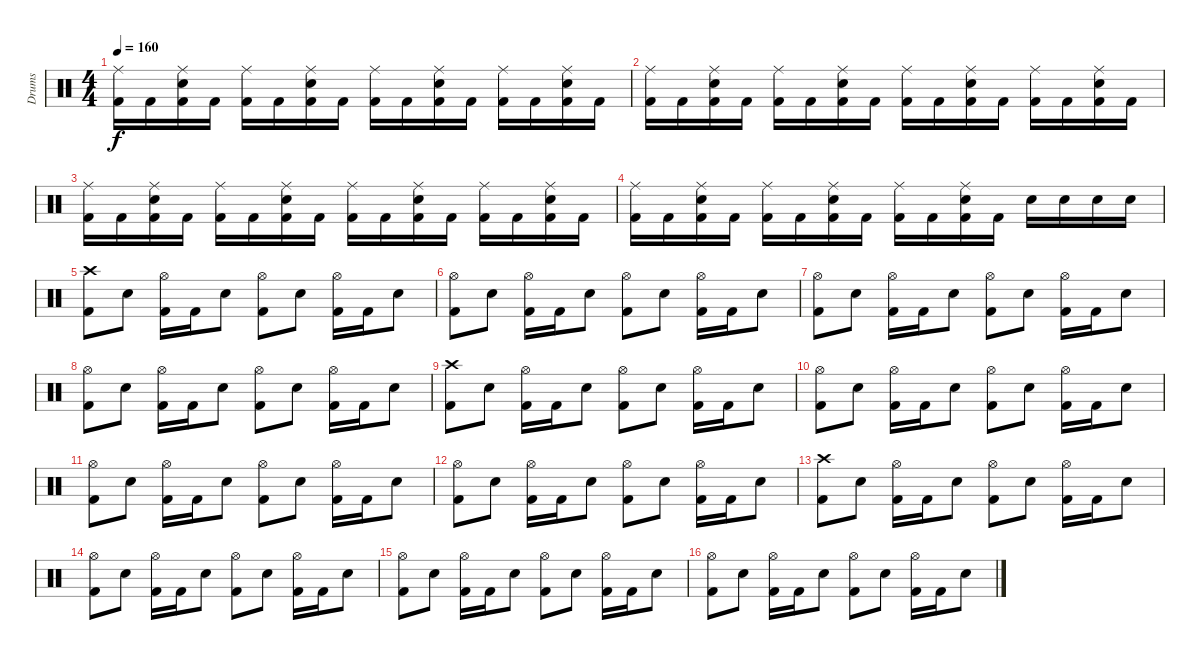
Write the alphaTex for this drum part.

\track ("Drums" "Drums") {instrument percussion}
\staff {score}
\articulation defaults
\ts (4 4)
\tempo 160
\clef neutral
\ks c
("Ride (middle)" "Kick (hit) 2").16{dy f} "Kick (hit) 2".16 ("Ride (middle)" "Electric Snare (hit)" "Kick (hit) 2").16 "Kick (hit) 2".16 ("Ride (middle)" "Kick (hit) 2").16 "Kick (hit) 2".16 ("Ride (middle)" "Electric Snare (hit)" "Kick (hit) 2").16 "Kick (hit) 2".16 ("Ride (middle)" "Kick (hit) 2").16 "Kick (hit) 2".16 ("Ride (middle)" "Electric Snare (hit)" "Kick (hit) 2").16 "Kick (hit) 2".16 ("Ride (middle)" "Kick (hit) 2").16 "Kick (hit) 2".16 ("Ride (middle)" "Electric Snare (hit)" "Kick (hit) 2").16 "Kick (hit) 2".16 |
("Ride (middle)" "Kick (hit) 2").16 "Kick (hit) 2".16 ("Ride (middle)" "Electric Snare (hit)" "Kick (hit) 2").16 "Kick (hit) 2".16 ("Ride (middle)" "Kick (hit) 2").16 "Kick (hit) 2".16 ("Ride (middle)" "Electric Snare (hit)" "Kick (hit) 2").16 "Kick (hit) 2".16 ("Ride (middle)" "Kick (hit) 2").16 "Kick (hit) 2".16 ("Ride (middle)" "Electric Snare (hit)" "Kick (hit) 2").16 "Kick (hit) 2".16 ("Ride (middle)" "Kick (hit) 2").16 "Kick (hit) 2".16 ("Ride (middle)" "Electric Snare (hit)" "Kick (hit) 2").16 "Kick (hit) 2".16 |
("Ride (middle)" "Kick (hit) 2").16 "Kick (hit) 2".16 ("Ride (middle)" "Electric Snare (hit)" "Kick (hit) 2").16 "Kick (hit) 2".16 ("Ride (middle)" "Kick (hit) 2").16 "Kick (hit) 2".16 ("Ride (middle)" "Electric Snare (hit)" "Kick (hit) 2").16 "Kick (hit) 2".16 ("Ride (middle)" "Kick (hit) 2").16 "Kick (hit) 2".16 ("Ride (middle)" "Electric Snare (hit)" "Kick (hit) 2").16 "Kick (hit) 2".16 ("Ride (middle)" "Kick (hit) 2").16 "Kick (hit) 2".16 ("Ride (middle)" "Electric Snare (hit)" "Kick (hit) 2").16 "Kick (hit) 2".16 |
("Ride (middle)" "Kick (hit) 2").16 "Kick (hit) 2".16 ("Ride (middle)" "Electric Snare (hit)" "Kick (hit) 2").16 "Kick (hit) 2".16 ("Ride (middle)" "Kick (hit) 2").16 "Kick (hit) 2".16 ("Ride (middle)" "Electric Snare (hit)" "Kick (hit) 2").16 "Kick (hit) 2".16 ("Ride (middle)" "Kick (hit) 2").16 "Kick (hit) 2".16 ("Ride (middle)" "Electric Snare (hit)" "Kick (hit) 2").16 "Kick (hit) 2".16 "Electric Snare (hit)".16 "Electric Snare (hit)".16 "Electric Snare (hit)".16 "Electric Snare (hit)".16 |
("Crash high (hit)" "Kick (hit) 2").8 "Electric Snare (hit)".8 ("Hi-Hat (open)" "Kick (hit) 2").16 "Kick (hit) 2".16 "Electric Snare (hit)".8 ("Hi-Hat (open)" "Kick (hit) 2").8 "Electric Snare (hit)".8 ("Hi-Hat (open)" "Kick (hit) 2").16 "Kick (hit) 2".16 "Electric Snare (hit)".8 |
("Hi-Hat (open)" "Kick (hit) 2").8 "Electric Snare (hit)".8 ("Hi-Hat (open)" "Kick (hit) 2").16 "Kick (hit) 2".16 "Electric Snare (hit)".8 ("Hi-Hat (open)" "Kick (hit) 2").8 "Electric Snare (hit)".8 ("Hi-Hat (open)" "Kick (hit) 2").16 "Kick (hit) 2".16 "Electric Snare (hit)".8 |
("Hi-Hat (open)" "Kick (hit) 2").8 "Electric Snare (hit)".8 ("Hi-Hat (open)" "Kick (hit) 2").16 "Kick (hit) 2".16 "Electric Snare (hit)".8 ("Hi-Hat (open)" "Kick (hit) 2").8 "Electric Snare (hit)".8 ("Hi-Hat (open)" "Kick (hit) 2").16 "Kick (hit) 2".16 "Electric Snare (hit)".8 |
("Hi-Hat (open)" "Kick (hit) 2").8 "Electric Snare (hit)".8 ("Hi-Hat (open)" "Kick (hit) 2").16 "Kick (hit) 2".16 "Electric Snare (hit)".8 ("Hi-Hat (open)" "Kick (hit) 2").8 "Electric Snare (hit)".8 ("Hi-Hat (open)" "Kick (hit) 2").16 "Kick (hit) 2".16 "Electric Snare (hit)".8 |
("Crash high (hit)" "Kick (hit) 2").8 "Electric Snare (hit)".8 ("Hi-Hat (open)" "Kick (hit) 2").16 "Kick (hit) 2".16 "Electric Snare (hit)".8 ("Hi-Hat (open)" "Kick (hit) 2").8 "Electric Snare (hit)".8 ("Hi-Hat (open)" "Kick (hit) 2").16 "Kick (hit) 2".16 "Electric Snare (hit)".8 |
("Hi-Hat (open)" "Kick (hit) 2").8 "Electric Snare (hit)".8 ("Hi-Hat (open)" "Kick (hit) 2").16 "Kick (hit) 2".16 "Electric Snare (hit)".8 ("Hi-Hat (open)" "Kick (hit) 2").8 "Electric Snare (hit)".8 ("Hi-Hat (open)" "Kick (hit) 2").16 "Kick (hit) 2".16 "Electric Snare (hit)".8 |
("Hi-Hat (open)" "Kick (hit) 2").8 "Electric Snare (hit)".8 ("Hi-Hat (open)" "Kick (hit) 2").16 "Kick (hit) 2".16 "Electric Snare (hit)".8 ("Hi-Hat (open)" "Kick (hit) 2").8 "Electric Snare (hit)".8 ("Hi-Hat (open)" "Kick (hit) 2").16 "Kick (hit) 2".16 "Electric Snare (hit)".8 |
("Hi-Hat (open)" "Kick (hit) 2").8 "Electric Snare (hit)".8 ("Hi-Hat (open)" "Kick (hit) 2").16 "Kick (hit) 2".16 "Electric Snare (hit)".8 ("Hi-Hat (open)" "Kick (hit) 2").8 "Electric Snare (hit)".8 ("Hi-Hat (open)" "Kick (hit) 2").16 "Kick (hit) 2".16 "Electric Snare (hit)".8 |
("Crash high (hit)" "Kick (hit) 2").8 "Electric Snare (hit)".8 ("Hi-Hat (open)" "Kick (hit) 2").16 "Kick (hit) 2".16 "Electric Snare (hit)".8 ("Hi-Hat (open)" "Kick (hit) 2").8 "Electric Snare (hit)".8 ("Hi-Hat (open)" "Kick (hit) 2").16 "Kick (hit) 2".16 "Electric Snare (hit)".8 |
("Hi-Hat (open)" "Kick (hit) 2").8 "Electric Snare (hit)".8 ("Hi-Hat (open)" "Kick (hit) 2").16 "Kick (hit) 2".16 "Electric Snare (hit)".8 ("Hi-Hat (open)" "Kick (hit) 2").8 "Electric Snare (hit)".8 ("Hi-Hat (open)" "Kick (hit) 2").16 "Kick (hit) 2".16 "Electric Snare (hit)".8 |
("Hi-Hat (open)" "Kick (hit) 2").8 "Electric Snare (hit)".8 ("Hi-Hat (open)" "Kick (hit) 2").16 "Kick (hit) 2".16 "Electric Snare (hit)".8 ("Hi-Hat (open)" "Kick (hit) 2").8 "Electric Snare (hit)".8 ("Hi-Hat (open)" "Kick (hit) 2").16 "Kick (hit) 2".16 "Electric Snare (hit)".8 |
("Hi-Hat (open)" "Kick (hit) 2").8 "Electric Snare (hit)".8 ("Hi-Hat (open)" "Kick (hit) 2").16 "Kick (hit) 2".16 "Electric Snare (hit)".8 ("Hi-Hat (open)" "Kick (hit) 2").8 "Electric Snare (hit)".8 ("Hi-Hat (open)" "Kick (hit) 2").16 "Kick (hit) 2".16 "Electric Snare (hit)".8
